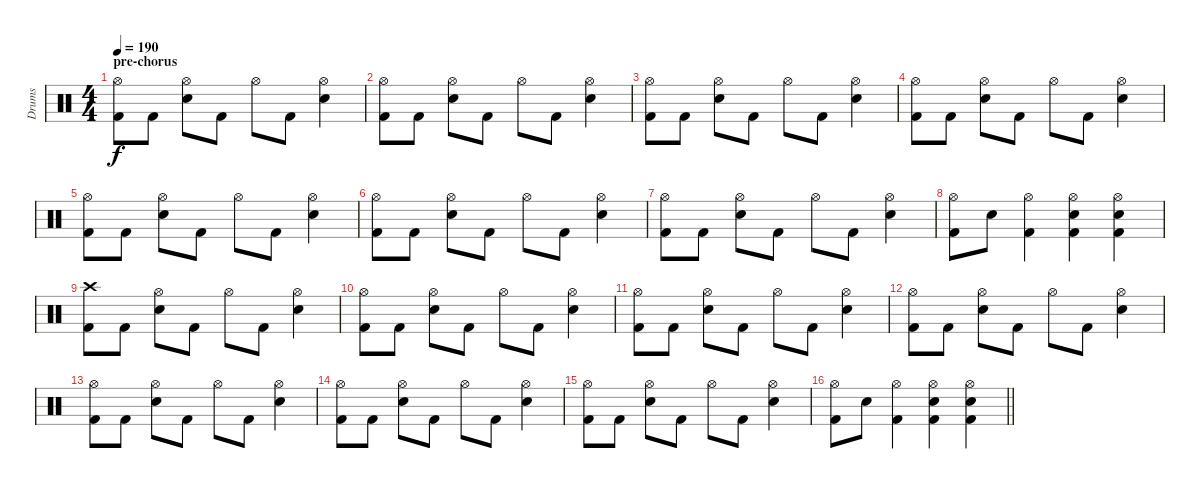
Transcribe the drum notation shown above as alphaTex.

\track ("Drums" "Drums") {instrument percussion}
\staff {score}
\articulation defaults
\ts (4 4)
\section ("" "pre-chorus")
\tempo 190
\clef neutral
\ks c
("Hi-Hat (open)" "Kick (hit) 2").8{dy f} "Kick (hit) 2".8 ("Hi-Hat (open)" "Snare (hit) 2").8 "Kick (hit) 2".8 "Hi-Hat (open)".8 "Kick (hit) 2".8 ("Hi-Hat (open)" "Snare (hit) 2").4 |
("Hi-Hat (open)" "Kick (hit) 2").8 "Kick (hit) 2".8 ("Hi-Hat (open)" "Snare (hit) 2").8 "Kick (hit) 2".8 "Hi-Hat (open)".8 "Kick (hit) 2".8 ("Hi-Hat (open)" "Snare (hit) 2").4 |
("Hi-Hat (open)" "Kick (hit) 2").8 "Kick (hit) 2".8 ("Hi-Hat (open)" "Snare (hit) 2").8 "Kick (hit) 2".8 "Hi-Hat (open)".8 "Kick (hit) 2".8 ("Hi-Hat (open)" "Snare (hit) 2").4 |
("Hi-Hat (open)" "Kick (hit) 2").8 "Kick (hit) 2".8 ("Hi-Hat (open)" "Snare (hit) 2").8 "Kick (hit) 2".8 "Hi-Hat (open)".8 "Kick (hit) 2".8 ("Hi-Hat (open)" "Snare (hit) 2").4 |
("Hi-Hat (open)" "Kick (hit) 2").8 "Kick (hit) 2".8 ("Hi-Hat (open)" "Snare (hit) 2").8 "Kick (hit) 2".8 "Hi-Hat (open)".8 "Kick (hit) 2".8 ("Hi-Hat (open)" "Snare (hit) 2").4 |
("Hi-Hat (open)" "Kick (hit) 2").8 "Kick (hit) 2".8 ("Hi-Hat (open)" "Snare (hit) 2").8 "Kick (hit) 2".8 "Hi-Hat (open)".8 "Kick (hit) 2".8 ("Hi-Hat (open)" "Snare (hit) 2").4 |
("Hi-Hat (open)" "Kick (hit) 2").8 "Kick (hit) 2".8 ("Hi-Hat (open)" "Snare (hit) 2").8 "Kick (hit) 2".8 "Hi-Hat (open)".8 "Kick (hit) 2".8 ("Hi-Hat (open)" "Snare (hit) 2").4 |
("Hi-Hat (open)" "Kick (hit) 2").8 "Snare (hit) 2".8 ("Hi-Hat (open)" "Kick (hit) 2").4 ("Hi-Hat (open)" "Snare (hit) 2" "Kick (hit) 2").4 ("Hi-Hat (open)" "Snare (hit) 2" "Kick (hit) 2").4 |
("Crash high (hit)" "Kick (hit) 2").8 "Kick (hit) 2".8 ("Hi-Hat (open)" "Snare (hit) 2").8 "Kick (hit) 2".8 "Hi-Hat (open)".8 "Kick (hit) 2".8 ("Hi-Hat (open)" "Snare (hit) 2").4 |
("Hi-Hat (open)" "Kick (hit) 2").8 "Kick (hit) 2".8 ("Hi-Hat (open)" "Snare (hit) 2").8 "Kick (hit) 2".8 "Hi-Hat (open)".8 "Kick (hit) 2".8 ("Hi-Hat (open)" "Snare (hit) 2").4 |
("Hi-Hat (open)" "Kick (hit) 2").8 "Kick (hit) 2".8 ("Hi-Hat (open)" "Snare (hit) 2").8 "Kick (hit) 2".8 "Hi-Hat (open)".8 "Kick (hit) 2".8 ("Hi-Hat (open)" "Snare (hit) 2").4 |
("Hi-Hat (open)" "Kick (hit) 2").8 "Kick (hit) 2".8 ("Hi-Hat (open)" "Snare (hit) 2").8 "Kick (hit) 2".8 "Hi-Hat (open)".8 "Kick (hit) 2".8 ("Hi-Hat (open)" "Snare (hit) 2").4 |
("Hi-Hat (open)" "Kick (hit) 2").8 "Kick (hit) 2".8 ("Hi-Hat (open)" "Snare (hit) 2").8 "Kick (hit) 2".8 "Hi-Hat (open)".8 "Kick (hit) 2".8 ("Hi-Hat (open)" "Snare (hit) 2").4 |
("Hi-Hat (open)" "Kick (hit) 2").8 "Kick (hit) 2".8 ("Hi-Hat (open)" "Snare (hit) 2").8 "Kick (hit) 2".8 "Hi-Hat (open)".8 "Kick (hit) 2".8 ("Hi-Hat (open)" "Snare (hit) 2").4 |
("Hi-Hat (open)" "Kick (hit) 2").8 "Kick (hit) 2".8 ("Hi-Hat (open)" "Snare (hit) 2").8 "Kick (hit) 2".8 "Hi-Hat (open)".8 "Kick (hit) 2".8 ("Hi-Hat (open)" "Snare (hit) 2").4 |
\barLineRight lightlight
("Hi-Hat (open)" "Kick (hit) 2").8 "Snare (hit) 2".8 ("Hi-Hat (open)" "Kick (hit) 2").4 ("Hi-Hat (open)" "Snare (hit) 2" "Kick (hit) 2").4 ("Hi-Hat (open)" "Snare (hit) 2" "Kick (hit) 2").4
